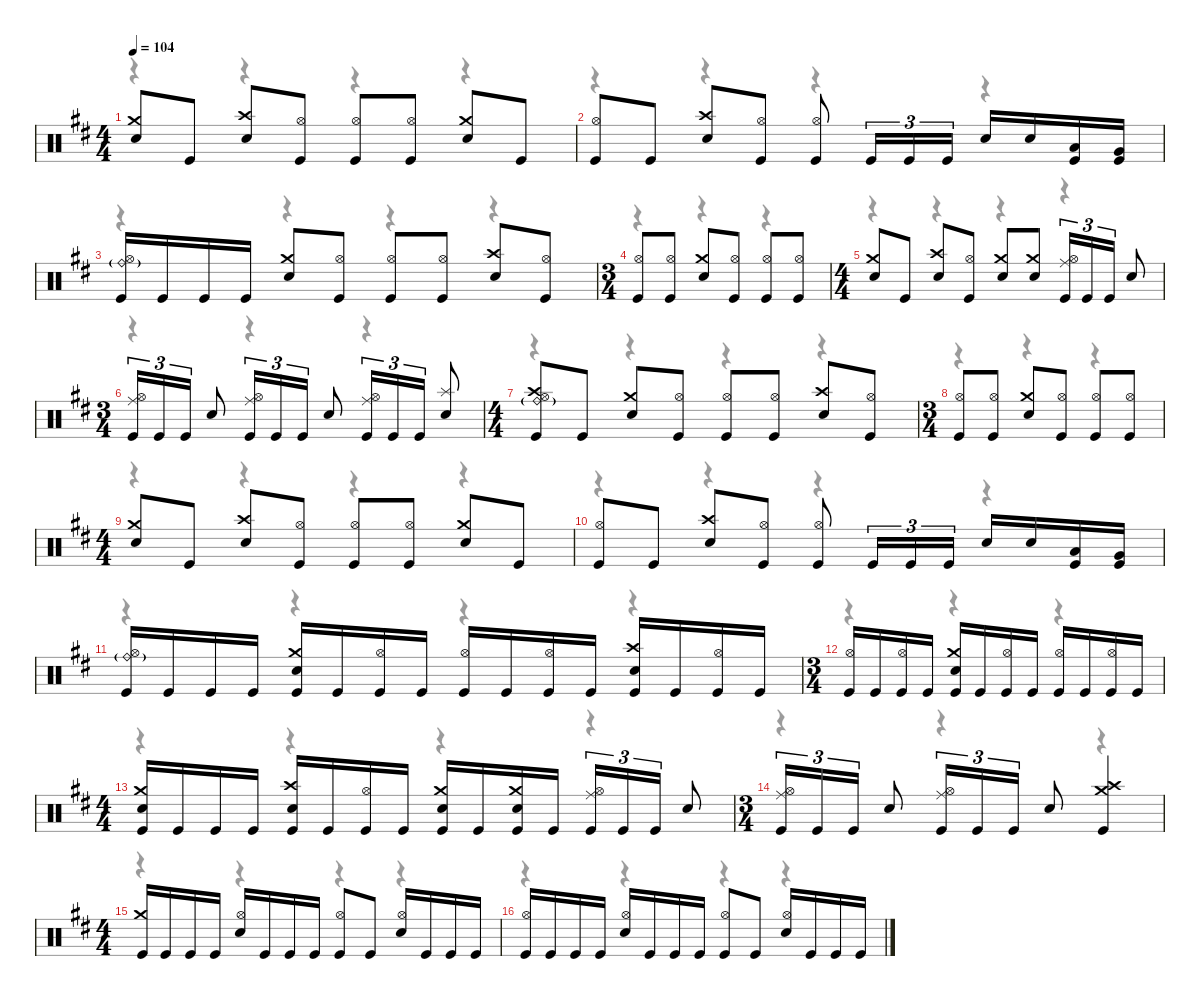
\defaultSystemsLayout 4
\hideDynamics
\bracketExtendMode nobrackets
\singleTrackTrackNamePolicy hidden
\multiTrackTrackNamePolicy hidden
\firstSystemTrackNameMode fullname
\otherSystemsTrackNameOrientation horizontal
\track ("Drums" "drm.") {instrument percussion}
\staff {score}
\articulation defaults
\voice
\ts (4 4)
\beaming (8 2 2 2 2)
\tempo 104
\clef neutral
\ks bminor
("Crash medium (hit)"{acc forcenatural} "Snare (hit) 2"{acc forcenatural}).8{dy mp beam Up} "Kick (hit)"{acc forcenatural}.8{dy f beam Up} ("Crash high (hit)"{acc forcenatural} "Snare (hit) 2"{acc forcenatural}).8{dy mp beam Up} ("Hi-Hat (open)"{acc forcenatural} "Kick (hit)"{acc forcenatural}).8{dy pp beam Up} ("Hi-Hat (open)"{acc forcenatural} "Kick (hit)"{acc forcenatural}).8{dy mp beam Up} ("Hi-Hat (open)"{acc forcenatural} "Kick (hit)"{acc forcenatural}).8{dy pp beam Up} ("Crash medium (hit)"{acc forcenatural} "Snare (hit) 2"{acc forcenatural}).8{dy mp beam Up} "Kick (hit)"{acc forcenatural}.8{dy f beam Up} |
("Hi-Hat (open)"{acc forcenatural} "Kick (hit)"{acc forcenatural}).8{dy mp beam Up} "Kick (hit)"{acc forcenatural}.8{dy f beam Up} ("Crash high (hit)"{acc forcenatural} "Snare (hit) 2"{acc forcenatural}).8{dy mp beam Up} ("Hi-Hat (open)"{acc forcenatural} "Kick (hit)"{acc forcenatural}).8{dy pp beam Up} ("Hi-Hat (open)"{acc forcenatural} "Kick (hit)"{acc forcenatural}).8{dy mp beam Up} "Kick (hit)"{acc forcenatural}.16{tu (3 2) dy f beam Up} "Kick (hit)"{acc forcenatural}.16{tu (3 2) beam Up} "Kick (hit)"{acc forcenatural}.16{tu (3 2) beam Up} "Snare (hit) 2"{acc forcenatural}.16{beam Up} "Snare (hit) 2"{acc forcenatural}.16{beam Up} ("Low Tom (hit)"{acc forcenatural} "Kick (hit)"{acc forcenatural}).16{dy mp beam Up} ("Very Low Tom (hit)"{acc forcenatural} "Kick (hit)"{acc forcenatural}).16{beam Up} |
("Ride (bell)"{g acc forcenatural} "Hi-Hat (open)"{acc forcenatural} "Kick (hit)"{acc forcenatural}).16{beam Up} "Kick (hit)"{acc forcenatural}.16{dy f beam Up} "Kick (hit)"{acc forcenatural}.16{beam Up} "Kick (hit)"{acc forcenatural}.16{beam Up} ("Crash medium (hit)"{acc forcenatural} "Snare (hit) 2"{acc forcenatural}).8{dy mp beam Up} ("Hi-Hat (open)"{acc forcenatural} "Kick (hit)"{acc forcenatural}).8{dy pp beam Up} ("Hi-Hat (open)"{acc forcenatural} "Kick (hit)"{acc forcenatural}).8{dy mp beam Up} ("Hi-Hat (open)"{acc forcenatural} "Kick (hit)"{acc forcenatural}).8{dy pp beam Up} ("Crash high (hit)"{acc forcenatural} "Snare (hit) 2"{acc forcenatural}).8{dy mp beam Up} ("Hi-Hat (open)"{acc forcenatural} "Kick (hit)"{acc forcenatural}).8{dy pp beam Up} |
\ts (3 4)
\beaming (8 2 2 2 2)
("Hi-Hat (open)"{acc forcenatural} "Kick (hit)"{acc forcenatural}).8{dy mp beam Up} ("Hi-Hat (open)"{acc forcenatural} "Kick (hit)"{acc forcenatural}).8{dy pp beam Up} ("Crash medium (hit)"{acc forcenatural} "Snare (hit) 2"{acc forcenatural}).8{dy mp beam Up} ("Hi-Hat (open)"{acc forcenatural} "Kick (hit)"{acc forcenatural}).8{dy pp beam Up} ("Hi-Hat (open)"{acc forcenatural} "Kick (hit)"{acc forcenatural}).8{dy mp beam Up} ("Hi-Hat (open)"{acc forcenatural} "Kick (hit)"{acc forcenatural}).8{dy pp beam Up} |
\ts (4 4)
\beaming (8 2 2 2 2)
("Crash medium (hit)"{acc forcenatural} "Snare (hit) 2"{acc forcenatural}).8{dy mp beam Up} "Kick (hit)"{acc forcenatural}.8{dy f beam Up} ("Crash high (hit)"{acc forcenatural} "Snare (hit) 2"{acc forcenatural}).8{dy mp beam Up} ("Hi-Hat (open)"{acc forcenatural} "Kick (hit)"{acc forcenatural}).8{dy pp beam Up} ("Crash medium (hit)"{acc forcenatural} "Snare (hit) 2"{acc forcenatural}).8{dy mp beam Up} ("Crash medium (hit)"{acc forcenatural} "Snare (hit) 2"{acc forcenatural}).8{beam Up} ("Ride (middle)"{acc forcenatural} "Hi-Hat (open)"{acc forcenatural} "Kick (hit)"{acc forcenatural}).16{tu (3 2) dy mf beam Up} "Kick (hit)"{acc forcenatural}.16{tu (3 2) dy f beam Up} "Kick (hit)"{acc forcenatural}.16{tu (3 2) beam Up} "Snare (hit) 2"{acc forcenatural}.8{beam Up} |
\ts (3 4)
\beaming (8 2 2 2 2)
("Ride (middle)"{acc forcenatural} "Hi-Hat (open)"{acc forcenatural} "Kick (hit)"{acc forcenatural}).16{tu (3 2) dy mf beam Up} "Kick (hit)"{acc forcenatural}.16{tu (3 2) dy f beam Up} "Kick (hit)"{acc forcenatural}.16{tu (3 2) beam Up} "Snare (hit) 2"{acc forcenatural}.8{beam Up} ("Ride (middle)"{acc forcenatural} "Hi-Hat (open)"{acc forcenatural} "Kick (hit)"{acc forcenatural}).16{tu (3 2) dy mf beam Up} "Kick (hit)"{acc forcenatural}.16{tu (3 2) dy f beam Up} "Kick (hit)"{acc forcenatural}.16{tu (3 2) beam Up} "Snare (hit) 2"{acc forcenatural}.8{beam Up} ("Ride (middle)"{acc forcenatural} "Hi-Hat (open)"{acc forcenatural} "Kick (hit)"{acc forcenatural}).16{tu (3 2) dy mf beam Up} "Kick (hit)"{acc forcenatural}.16{tu (3 2) dy f beam Up} "Kick (hit)"{acc forcenatural}.16{tu (3 2) beam Up} ("Splash (hit)"{acc forcenatural} "Snare (hit) 2"{acc forcenatural}).8{beam Up} |
\ts (4 4)
\beaming (8 2 2 2 2)
("Ride (bell)"{g acc forcenatural} "Crash high (hit)"{acc forcenatural} "Hi-Hat (open)"{acc forcenatural} "Kick (hit)"{acc forcenatural}).8{dy mp beam Up} "Kick (hit)"{acc forcenatural}.8{dy f beam Up} ("Crash medium (hit)"{acc forcenatural} "Snare (hit) 2"{acc forcenatural}).8{dy mp beam Up} ("Hi-Hat (open)"{acc forcenatural} "Kick (hit)"{acc forcenatural}).8{dy pp beam Up} ("Hi-Hat (open)"{acc forcenatural} "Kick (hit)"{acc forcenatural}).8{dy mp beam Up} ("Hi-Hat (open)"{acc forcenatural} "Kick (hit)"{acc forcenatural}).8{dy pp beam Up} ("Crash high (hit)"{acc forcenatural} "Snare (hit) 2"{acc forcenatural}).8{dy mp beam Up} ("Hi-Hat (open)"{acc forcenatural} "Kick (hit)"{acc forcenatural}).8{dy pp beam Up} |
\ts (3 4)
\beaming (8 2 2 2 2)
("Hi-Hat (open)"{acc forcenatural} "Kick (hit)"{acc forcenatural}).8{dy mp beam Up} ("Hi-Hat (open)"{acc forcenatural} "Kick (hit)"{acc forcenatural}).8{dy pp beam Up} ("Crash medium (hit)"{acc forcenatural} "Snare (hit) 2"{acc forcenatural}).8{dy mp beam Up} ("Hi-Hat (open)"{acc forcenatural} "Kick (hit)"{acc forcenatural}).8{dy pp beam Up} ("Hi-Hat (open)"{acc forcenatural} "Kick (hit)"{acc forcenatural}).8{dy mp beam Up} ("Hi-Hat (open)"{acc forcenatural} "Kick (hit)"{acc forcenatural}).8{dy pp beam Up} |
\ts (4 4)
\beaming (8 2 2 2 2)
("Crash medium (hit)"{acc forcenatural} "Snare (hit) 2"{acc forcenatural}).8{dy mp beam Up} "Kick (hit)"{acc forcenatural}.8{dy f beam Up} ("Crash high (hit)"{acc forcenatural} "Snare (hit) 2"{acc forcenatural}).8{dy mp beam Up} ("Hi-Hat (open)"{acc forcenatural} "Kick (hit)"{acc forcenatural}).8{dy pp beam Up} ("Hi-Hat (open)"{acc forcenatural} "Kick (hit)"{acc forcenatural}).8{dy mp beam Up} ("Hi-Hat (open)"{acc forcenatural} "Kick (hit)"{acc forcenatural}).8{dy pp beam Up} ("Crash medium (hit)"{acc forcenatural} "Snare (hit) 2"{acc forcenatural}).8{dy mp beam Up} "Kick (hit)"{acc forcenatural}.8{dy f beam Up} |
("Hi-Hat (open)"{acc forcenatural} "Kick (hit)"{acc forcenatural}).8{dy mp beam Up} "Kick (hit)"{acc forcenatural}.8{dy f beam Up} ("Crash high (hit)"{acc forcenatural} "Snare (hit) 2"{acc forcenatural}).8{dy mp beam Up} ("Hi-Hat (open)"{acc forcenatural} "Kick (hit)"{acc forcenatural}).8{dy pp beam Up} ("Hi-Hat (open)"{acc forcenatural} "Kick (hit)"{acc forcenatural}).8{dy mp beam Up} "Kick (hit)"{acc forcenatural}.16{tu (3 2) dy f beam Up} "Kick (hit)"{acc forcenatural}.16{tu (3 2) beam Up} "Kick (hit)"{acc forcenatural}.16{tu (3 2) beam Up} "Snare (hit) 2"{acc forcenatural}.16{beam Up} "Snare (hit) 2"{acc forcenatural}.16{beam Up} ("Low Tom (hit)"{acc forcenatural} "Kick (hit)"{acc forcenatural}).16{dy mp beam Up} ("Very Low Tom (hit)"{acc forcenatural} "Kick (hit)"{acc forcenatural}).16{beam Up} |
("Ride (bell)"{g acc forcenatural} "Hi-Hat (open)"{acc forcenatural} "Kick (hit)"{acc forcenatural}).16{beam Up} "Kick (hit)"{acc forcenatural}.16{dy f beam Up} "Kick (hit)"{acc forcenatural}.16{beam Up} "Kick (hit)"{acc forcenatural}.16{beam Up} ("Crash medium (hit)"{acc forcenatural} "Snare (hit) 2"{acc forcenatural} "Kick (hit)"{acc forcenatural}).16{dy mp beam Up} "Kick (hit)"{acc forcenatural}.16{dy f beam Up} ("Hi-Hat (open)"{acc forcenatural} "Kick (hit)"{acc forcenatural}).16{dy pp beam Up} "Kick (hit)"{acc forcenatural}.16{dy f beam Up} ("Hi-Hat (open)"{acc forcenatural} "Kick (hit)"{acc forcenatural}).16{dy mp beam Up} "Kick (hit)"{acc forcenatural}.16{dy f beam Up} ("Hi-Hat (open)"{acc forcenatural} "Kick (hit)"{acc forcenatural}).16{dy pp beam Up} "Kick (hit)"{acc forcenatural}.16{dy f beam Up} ("Crash high (hit)"{acc forcenatural} "Snare (hit) 2"{acc forcenatural} "Kick (hit)"{acc forcenatural}).16{dy mp beam Up} "Kick (hit)"{acc forcenatural}.16{dy f beam Up} ("Hi-Hat (open)"{acc forcenatural} "Kick (hit)"{acc forcenatural}).16{dy pp beam Up} "Kick (hit)"{acc forcenatural}.16{dy f beam Up} |
\ts (3 4)
\beaming (8 2 2 2 2)
("Hi-Hat (open)"{acc forcenatural} "Kick (hit)"{acc forcenatural}).16{dy mp beam Up} "Kick (hit)"{acc forcenatural}.16{dy f beam Up} ("Hi-Hat (open)"{acc forcenatural} "Kick (hit)"{acc forcenatural}).16{dy pp beam Up} "Kick (hit)"{acc forcenatural}.16{dy f beam Up} ("Crash medium (hit)"{acc forcenatural} "Snare (hit) 2"{acc forcenatural} "Kick (hit)"{acc forcenatural}).16{dy mp beam Up} "Kick (hit)"{acc forcenatural}.16{dy f beam Up} ("Hi-Hat (open)"{acc forcenatural} "Kick (hit)"{acc forcenatural}).16{dy pp beam Up} "Kick (hit)"{acc forcenatural}.16{dy f beam Up} ("Hi-Hat (open)"{acc forcenatural} "Kick (hit)"{acc forcenatural}).16{dy mp beam Up} "Kick (hit)"{acc forcenatural}.16{dy f beam Up} ("Hi-Hat (open)"{acc forcenatural} "Kick (hit)"{acc forcenatural}).16{dy pp beam Up} "Kick (hit)"{acc forcenatural}.16{dy f beam Up} |
\ts (4 4)
\beaming (8 2 2 2 2)
("Crash medium (hit)"{acc forcenatural} "Snare (hit) 2"{acc forcenatural} "Kick (hit)"{acc forcenatural}).16{dy mp beam Up} "Kick (hit)"{acc forcenatural}.16{dy f beam Up} "Kick (hit)"{acc forcenatural}.16{beam Up} "Kick (hit)"{acc forcenatural}.16{beam Up} ("Crash high (hit)"{acc forcenatural} "Snare (hit) 2"{acc forcenatural} "Kick (hit)"{acc forcenatural}).16{dy mp beam Up} "Kick (hit)"{acc forcenatural}.16{dy f beam Up} ("Hi-Hat (open)"{acc forcenatural} "Kick (hit)"{acc forcenatural}).16{dy pp beam Up} "Kick (hit)"{acc forcenatural}.16{dy f beam Up} ("Crash medium (hit)"{acc forcenatural} "Snare (hit) 2"{acc forcenatural} "Kick (hit)"{acc forcenatural}).16{dy mp beam Up} "Kick (hit)"{acc forcenatural}.16{dy f beam Up} ("Crash medium (hit)"{acc forcenatural} "Snare (hit) 2"{acc forcenatural} "Kick (hit)"{acc forcenatural}).16{dy mp beam Up} "Kick (hit)"{acc forcenatural}.16{dy f beam Up} ("Ride (middle)"{acc forcenatural} "Hi-Hat (open)"{acc forcenatural} "Kick (hit)"{acc forcenatural}).16{tu (3 2) dy mf beam Up} "Kick (hit)"{acc forcenatural}.16{tu (3 2) dy f beam Up} "Kick (hit)"{acc forcenatural}.16{tu (3 2) beam Up} "Snare (hit) 2"{acc forcenatural}.8{beam Up} |
\ts (3 4)
\beaming (8 2 2 2 2)
("Ride (middle)"{acc forcenatural} "Hi-Hat (open)"{acc forcenatural} "Kick (hit)"{acc forcenatural}).16{tu (3 2) dy mf beam Up} "Kick (hit)"{acc forcenatural}.16{tu (3 2) dy f beam Up} "Kick (hit)"{acc forcenatural}.16{tu (3 2) beam Up} "Snare (hit) 2"{acc forcenatural}.8{beam Up} ("Ride (middle)"{acc forcenatural} "Hi-Hat (open)"{acc forcenatural} "Kick (hit)"{acc forcenatural}).16{tu (3 2) dy mf beam Up} "Kick (hit)"{acc forcenatural}.16{tu (3 2) dy f beam Up} "Kick (hit)"{acc forcenatural}.16{tu (3 2) beam Up} "Snare (hit) 2"{acc forcenatural}.8{beam Up} ("Crash high (hit)"{acc forcenatural} "Crash medium (hit)"{acc forcenatural} "Kick (hit)"{acc forcenatural}).4{dy mp beam Up} |
\ts (4 4)
\beaming (8 2 2 2 2)
("Crash medium (hit)"{acc forcenatural} "Kick (hit)"{acc forcenatural}).16{dy mf beam Up} "Kick (hit)"{acc forcenatural}.16{dy f beam Up} "Kick (hit)"{acc forcenatural}.16{beam Up} "Kick (hit)"{acc forcenatural}.16{beam Up} ("Hi-Hat (open)"{acc forcenatural} "Snare (hit) 2"{acc forcenatural}).16{dy mp beam Up} "Kick (hit)"{acc forcenatural}.16{dy f beam Up} "Kick (hit)"{acc forcenatural}.16{beam Up} "Kick (hit)"{acc forcenatural}.16{beam Up} ("Hi-Hat (open)"{acc forcenatural} "Kick (hit)"{acc forcenatural}).8{dy mp beam Up} "Kick (hit)"{acc forcenatural}.8{dy f beam Up} ("Hi-Hat (open)"{acc forcenatural} "Snare (hit) 2"{acc forcenatural}).16{dy mp beam Up} "Kick (hit)"{acc forcenatural}.16{dy f beam Up} "Kick (hit)"{acc forcenatural}.16{beam Up} "Kick (hit)"{acc forcenatural}.16{beam Up} |
("Hi-Hat (open)"{acc forcenatural} "Kick (hit)"{acc forcenatural}).16{dy mp beam Up} "Kick (hit)"{acc forcenatural}.16{dy f beam Up} "Kick (hit)"{acc forcenatural}.16{beam Up} "Kick (hit)"{acc forcenatural}.16{beam Up} ("Hi-Hat (open)"{acc forcenatural} "Snare (hit) 2"{acc forcenatural}).16{dy mp beam Up} "Kick (hit)"{acc forcenatural}.16{dy f beam Up} "Kick (hit)"{acc forcenatural}.16{beam Up} "Kick (hit)"{acc forcenatural}.16{beam Up} ("Hi-Hat (open)"{acc forcenatural} "Kick (hit)"{acc forcenatural}).8{dy mp beam Up} "Kick (hit)"{acc forcenatural}.8{dy f beam Up} ("Hi-Hat (open)"{acc forcenatural} "Snare (hit) 2"{acc forcenatural}).16{dy mp beam Up} "Kick (hit)"{acc forcenatural}.16{dy f beam Up} "Kick (hit)"{acc forcenatural}.16{beam Up} "Kick (hit)"{acc forcenatural}.16{beam Up}
\voice
\clef neutral
\ottava regular
\simile none
\ks bminor
r.4{dy mf beam Down} r.4{beam Down} r.4{beam Down} r.4{beam Down} |
r.4{beam Down} r.4{beam Down} r.4{beam Down} r.4{beam Down} |
r.4{beam Down} r.4{beam Down} r.4{beam Down} r.4{beam Down} |
r.4{beam Down} r.4{beam Down} r.4{beam Down} |
r.4{beam Down} r.4{beam Down} r.4{beam Down} r.4{beam Down} |
r.4{beam Down} r.4{beam Down} r.4{beam Down} |
r.4{beam Down} r.4{beam Down} r.4{beam Down} r.4{beam Down} |
r.4{beam Down} r.4{beam Down} r.4{beam Down} |
r.4{beam Down} r.4{beam Down} r.4{beam Down} r.4{beam Down} |
r.4{beam Down} r.4{beam Down} r.4{beam Down} r.4{beam Down} |
r.4{beam Down} r.4{beam Down} r.4{beam Down} r.4{beam Down} |
r.4{beam Down} r.4{beam Down} r.4{beam Down} |
r.4{beam Down} r.4{beam Down} r.4{beam Down} r.4{beam Down} |
r.4{beam Down} r.4{beam Down} r.4{beam Down} |
r.4{beam Down} r.4{beam Down} r.4{beam Down} r.4{beam Down} |
r.4{beam Down} r.4{beam Down} r.4{beam Down} r.4{beam Down}
